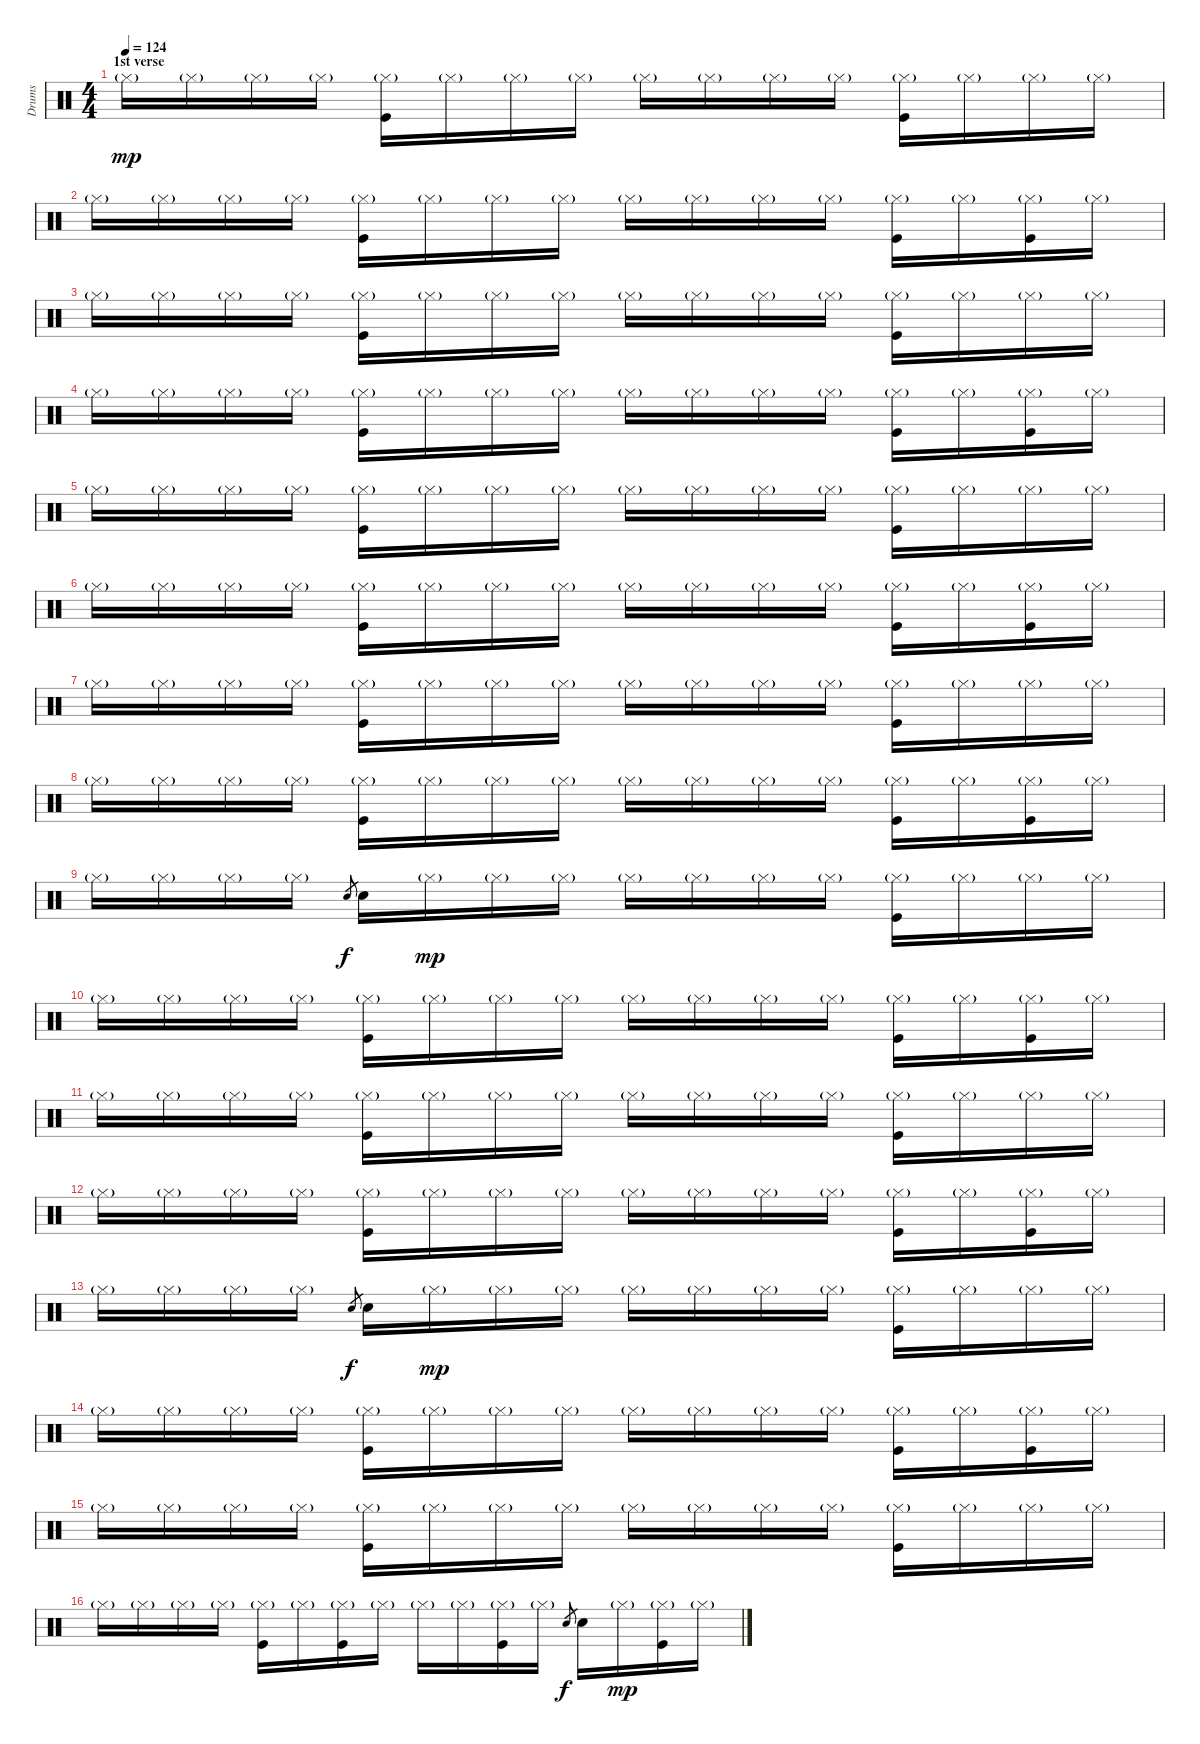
\track ("Drums" "Drums") {instrument percussion}
\staff {score}
\articulation defaults
\ts (4 4)
\section ("" "1st verse")
\tempo 124
\clef neutral
\ks c "Hi-Hat (closed)"{g}.16{dy mp} "Hi-Hat (closed)"{g}.16 "Hi-Hat (closed)"{g}.16 "Hi-Hat (closed)"{g}.16
("Hi-Hat (closed)"{g} "Kick (hit)").16 "Hi-Hat (closed)"{g}.16 "Hi-Hat (closed)"{g}.16 "Hi-Hat (closed)"{g}.16 "Hi-Hat (closed)"{g}.16 "Hi-Hat (closed)"{g}.16 "Hi-Hat (closed)"{g}.16 "Hi-Hat (closed)"{g}.16 ("Hi-Hat (closed)"{g} "Kick (hit)").16 "Hi-Hat (closed)"{g}.16 "Hi-Hat (closed)"{g}.16 "Hi-Hat (closed)"{g}.16 |
"Hi-Hat (closed)"{g}.16 "Hi-Hat (closed)"{g}.16 "Hi-Hat (closed)"{g}.16 "Hi-Hat (closed)"{g}.16 ("Hi-Hat (closed)"{g} "Kick (hit)").16 "Hi-Hat (closed)"{g}.16 "Hi-Hat (closed)"{g}.16 "Hi-Hat (closed)"{g}.16 "Hi-Hat (closed)"{g}.16 "Hi-Hat (closed)"{g}.16 "Hi-Hat (closed)"{g}.16 "Hi-Hat (closed)"{g}.16 ("Hi-Hat (closed)"{g} "Kick (hit)").16 "Hi-Hat (closed)"{g}.16 ("Hi-Hat (closed)"{g} "Kick (hit)").16 "Hi-Hat (closed)"{g}.16 |
"Hi-Hat (closed)"{g}.16 "Hi-Hat (closed)"{g}.16 "Hi-Hat (closed)"{g}.16 "Hi-Hat (closed)"{g}.16 ("Hi-Hat (closed)"{g} "Kick (hit)").16 "Hi-Hat (closed)"{g}.16 "Hi-Hat (closed)"{g}.16 "Hi-Hat (closed)"{g}.16 "Hi-Hat (closed)"{g}.16 "Hi-Hat (closed)"{g}.16 "Hi-Hat (closed)"{g}.16 "Hi-Hat (closed)"{g}.16 ("Hi-Hat (closed)"{g} "Kick (hit)").16 "Hi-Hat (closed)"{g}.16 "Hi-Hat (closed)"{g}.16 "Hi-Hat (closed)"{g}.16 |
"Hi-Hat (closed)"{g}.16 "Hi-Hat (closed)"{g}.16 "Hi-Hat (closed)"{g}.16 "Hi-Hat (closed)"{g}.16 ("Hi-Hat (closed)"{g} "Kick (hit)").16 "Hi-Hat (closed)"{g}.16 "Hi-Hat (closed)"{g}.16 "Hi-Hat (closed)"{g}.16 "Hi-Hat (closed)"{g}.16 "Hi-Hat (closed)"{g}.16 "Hi-Hat (closed)"{g}.16 "Hi-Hat (closed)"{g}.16 ("Hi-Hat (closed)"{g} "Kick (hit)").16 "Hi-Hat (closed)"{g}.16 ("Hi-Hat (closed)"{g} "Kick (hit)").16 "Hi-Hat (closed)"{g}.16 |
"Hi-Hat (closed)"{g}.16 "Hi-Hat (closed)"{g}.16 "Hi-Hat (closed)"{g}.16 "Hi-Hat (closed)"{g}.16 ("Hi-Hat (closed)"{g} "Kick (hit)").16 "Hi-Hat (closed)"{g}.16 "Hi-Hat (closed)"{g}.16 "Hi-Hat (closed)"{g}.16 "Hi-Hat (closed)"{g}.16 "Hi-Hat (closed)"{g}.16 "Hi-Hat (closed)"{g}.16 "Hi-Hat (closed)"{g}.16 ("Hi-Hat (closed)"{g} "Kick (hit)").16 "Hi-Hat (closed)"{g}.16 "Hi-Hat (closed)"{g}.16 "Hi-Hat (closed)"{g}.16 |
"Hi-Hat (closed)"{g}.16 "Hi-Hat (closed)"{g}.16 "Hi-Hat (closed)"{g}.16 "Hi-Hat (closed)"{g}.16 ("Hi-Hat (closed)"{g} "Kick (hit)").16 "Hi-Hat (closed)"{g}.16 "Hi-Hat (closed)"{g}.16 "Hi-Hat (closed)"{g}.16 "Hi-Hat (closed)"{g}.16 "Hi-Hat (closed)"{g}.16 "Hi-Hat (closed)"{g}.16 "Hi-Hat (closed)"{g}.16 ("Hi-Hat (closed)"{g} "Kick (hit)").16 "Hi-Hat (closed)"{g}.16 ("Hi-Hat (closed)"{g} "Kick (hit)").16 "Hi-Hat (closed)"{g}.16 |
"Hi-Hat (closed)"{g}.16 "Hi-Hat (closed)"{g}.16 "Hi-Hat (closed)"{g}.16 "Hi-Hat (closed)"{g}.16 ("Hi-Hat (closed)"{g} "Kick (hit)").16 "Hi-Hat (closed)"{g}.16 "Hi-Hat (closed)"{g}.16 "Hi-Hat (closed)"{g}.16 "Hi-Hat (closed)"{g}.16 "Hi-Hat (closed)"{g}.16 "Hi-Hat (closed)"{g}.16 "Hi-Hat (closed)"{g}.16 ("Hi-Hat (closed)"{g} "Kick (hit)").16 "Hi-Hat (closed)"{g}.16 "Hi-Hat (closed)"{g}.16 "Hi-Hat (closed)"{g}.16 |
"Hi-Hat (closed)"{g}.16 "Hi-Hat (closed)"{g}.16 "Hi-Hat (closed)"{g}.16 "Hi-Hat (closed)"{g}.16 ("Hi-Hat (closed)"{g} "Kick (hit)").16 "Hi-Hat (closed)"{g}.16 "Hi-Hat (closed)"{g}.16 "Hi-Hat (closed)"{g}.16 "Hi-Hat (closed)"{g}.16 "Hi-Hat (closed)"{g}.16 "Hi-Hat (closed)"{g}.16 "Hi-Hat (closed)"{g}.16 ("Hi-Hat (closed)"{g} "Kick (hit)").16 "Hi-Hat (closed)"{g}.16 ("Hi-Hat (closed)"{g} "Kick (hit)").16 "Hi-Hat (closed)"{g}.16 |
"Hi-Hat (closed)"{g}.16 "Hi-Hat (closed)"{g}.16 "Hi-Hat (closed)"{g}.16 "Hi-Hat (closed)"{g}.16 "Snare (hit) 2"{h}.8{gr dy f} "Snare (hit) 2".16 "Hi-Hat (closed)"{g}.16{dy mp} "Hi-Hat (closed)"{g}.16 "Hi-Hat (closed)"{g}.16 "Hi-Hat (closed)"{g}.16 "Hi-Hat (closed)"{g}.16 "Hi-Hat (closed)"{g}.16 "Hi-Hat (closed)"{g}.16 ("Hi-Hat (closed)"{g} "Kick (hit)").16 "Hi-Hat (closed)"{g}.16 "Hi-Hat (closed)"{g}.16 "Hi-Hat (closed)"{g}.16 |
"Hi-Hat (closed)"{g}.16 "Hi-Hat (closed)"{g}.16 "Hi-Hat (closed)"{g}.16 "Hi-Hat (closed)"{g}.16 ("Hi-Hat (closed)"{g} "Kick (hit)").16 "Hi-Hat (closed)"{g}.16 "Hi-Hat (closed)"{g}.16 "Hi-Hat (closed)"{g}.16 "Hi-Hat (closed)"{g}.16 "Hi-Hat (closed)"{g}.16 "Hi-Hat (closed)"{g}.16 "Hi-Hat (closed)"{g}.16 ("Hi-Hat (closed)"{g} "Kick (hit)").16 "Hi-Hat (closed)"{g}.16 ("Hi-Hat (closed)"{g} "Kick (hit)").16 "Hi-Hat (closed)"{g}.16 |
"Hi-Hat (closed)"{g}.16 "Hi-Hat (closed)"{g}.16 "Hi-Hat (closed)"{g}.16 "Hi-Hat (closed)"{g}.16 ("Hi-Hat (closed)"{g} "Kick (hit)").16 "Hi-Hat (closed)"{g}.16 "Hi-Hat (closed)"{g}.16 "Hi-Hat (closed)"{g}.16 "Hi-Hat (closed)"{g}.16 "Hi-Hat (closed)"{g}.16 "Hi-Hat (closed)"{g}.16 "Hi-Hat (closed)"{g}.16 ("Hi-Hat (closed)"{g} "Kick (hit)").16 "Hi-Hat (closed)"{g}.16 "Hi-Hat (closed)"{g}.16 "Hi-Hat (closed)"{g}.16 |
"Hi-Hat (closed)"{g}.16 "Hi-Hat (closed)"{g}.16 "Hi-Hat (closed)"{g}.16 "Hi-Hat (closed)"{g}.16 ("Hi-Hat (closed)"{g} "Kick (hit)").16 "Hi-Hat (closed)"{g}.16 "Hi-Hat (closed)"{g}.16 "Hi-Hat (closed)"{g}.16 "Hi-Hat (closed)"{g}.16 "Hi-Hat (closed)"{g}.16 "Hi-Hat (closed)"{g}.16 "Hi-Hat (closed)"{g}.16 ("Hi-Hat (closed)"{g} "Kick (hit)").16 "Hi-Hat (closed)"{g}.16 ("Hi-Hat (closed)"{g} "Kick (hit)").16 "Hi-Hat (closed)"{g}.16 |
"Hi-Hat (closed)"{g}.16 "Hi-Hat (closed)"{g}.16 "Hi-Hat (closed)"{g}.16 "Hi-Hat (closed)"{g}.16 "Snare (hit) 2"{h}.8{gr dy f} "Snare (hit) 2".16 "Hi-Hat (closed)"{g}.16{dy mp} "Hi-Hat (closed)"{g}.16 "Hi-Hat (closed)"{g}.16 "Hi-Hat (closed)"{g}.16 "Hi-Hat (closed)"{g}.16 "Hi-Hat (closed)"{g}.16 "Hi-Hat (closed)"{g}.16 ("Hi-Hat (closed)"{g} "Kick (hit)").16 "Hi-Hat (closed)"{g}.16 "Hi-Hat (closed)"{g}.16 "Hi-Hat (closed)"{g}.16 |
"Hi-Hat (closed)"{g}.16 "Hi-Hat (closed)"{g}.16 "Hi-Hat (closed)"{g}.16 "Hi-Hat (closed)"{g}.16 ("Hi-Hat (closed)"{g} "Kick (hit)").16 "Hi-Hat (closed)"{g}.16 "Hi-Hat (closed)"{g}.16 "Hi-Hat (closed)"{g}.16 "Hi-Hat (closed)"{g}.16 "Hi-Hat (closed)"{g}.16 "Hi-Hat (closed)"{g}.16 "Hi-Hat (closed)"{g}.16 ("Hi-Hat (closed)"{g} "Kick (hit)").16 "Hi-Hat (closed)"{g}.16 ("Hi-Hat (closed)"{g} "Kick (hit)").16 "Hi-Hat (closed)"{g}.16 |
"Hi-Hat (closed)"{g}.16 "Hi-Hat (closed)"{g}.16 "Hi-Hat (closed)"{g}.16 "Hi-Hat (closed)"{g}.16 ("Hi-Hat (closed)"{g} "Kick (hit)").16 "Hi-Hat (closed)"{g}.16 "Hi-Hat (closed)"{g}.16 "Hi-Hat (closed)"{g}.16 "Hi-Hat (closed)"{g}.16 "Hi-Hat (closed)"{g}.16 "Hi-Hat (closed)"{g}.16 "Hi-Hat (closed)"{g}.16 ("Hi-Hat (closed)"{g} "Kick (hit)").16 "Hi-Hat (closed)"{g}.16 "Hi-Hat (closed)"{g}.16 "Hi-Hat (closed)"{g}.16 |
"Hi-Hat (closed)"{g}.16 "Hi-Hat (closed)"{g}.16 "Hi-Hat (closed)"{g}.16 "Hi-Hat (closed)"{g}.16 ("Hi-Hat (closed)"{g} "Kick (hit)").16 "Hi-Hat (closed)"{g}.16 ("Hi-Hat (closed)"{g} "Kick (hit)").16 "Hi-Hat (closed)"{g}.16 "Hi-Hat (closed)"{g}.16 "Hi-Hat (closed)"{g}.16 ("Hi-Hat (closed)"{g} "Kick (hit)").16 "Hi-Hat (closed)"{g}.16 "Snare (hit) 2".8{gr dy f} "Snare (hit) 2".16 "Hi-Hat (closed)"{g}.16{dy mp} ("Hi-Hat (closed)"{g} "Kick (hit)").16 "Hi-Hat (closed)"{g}.16
